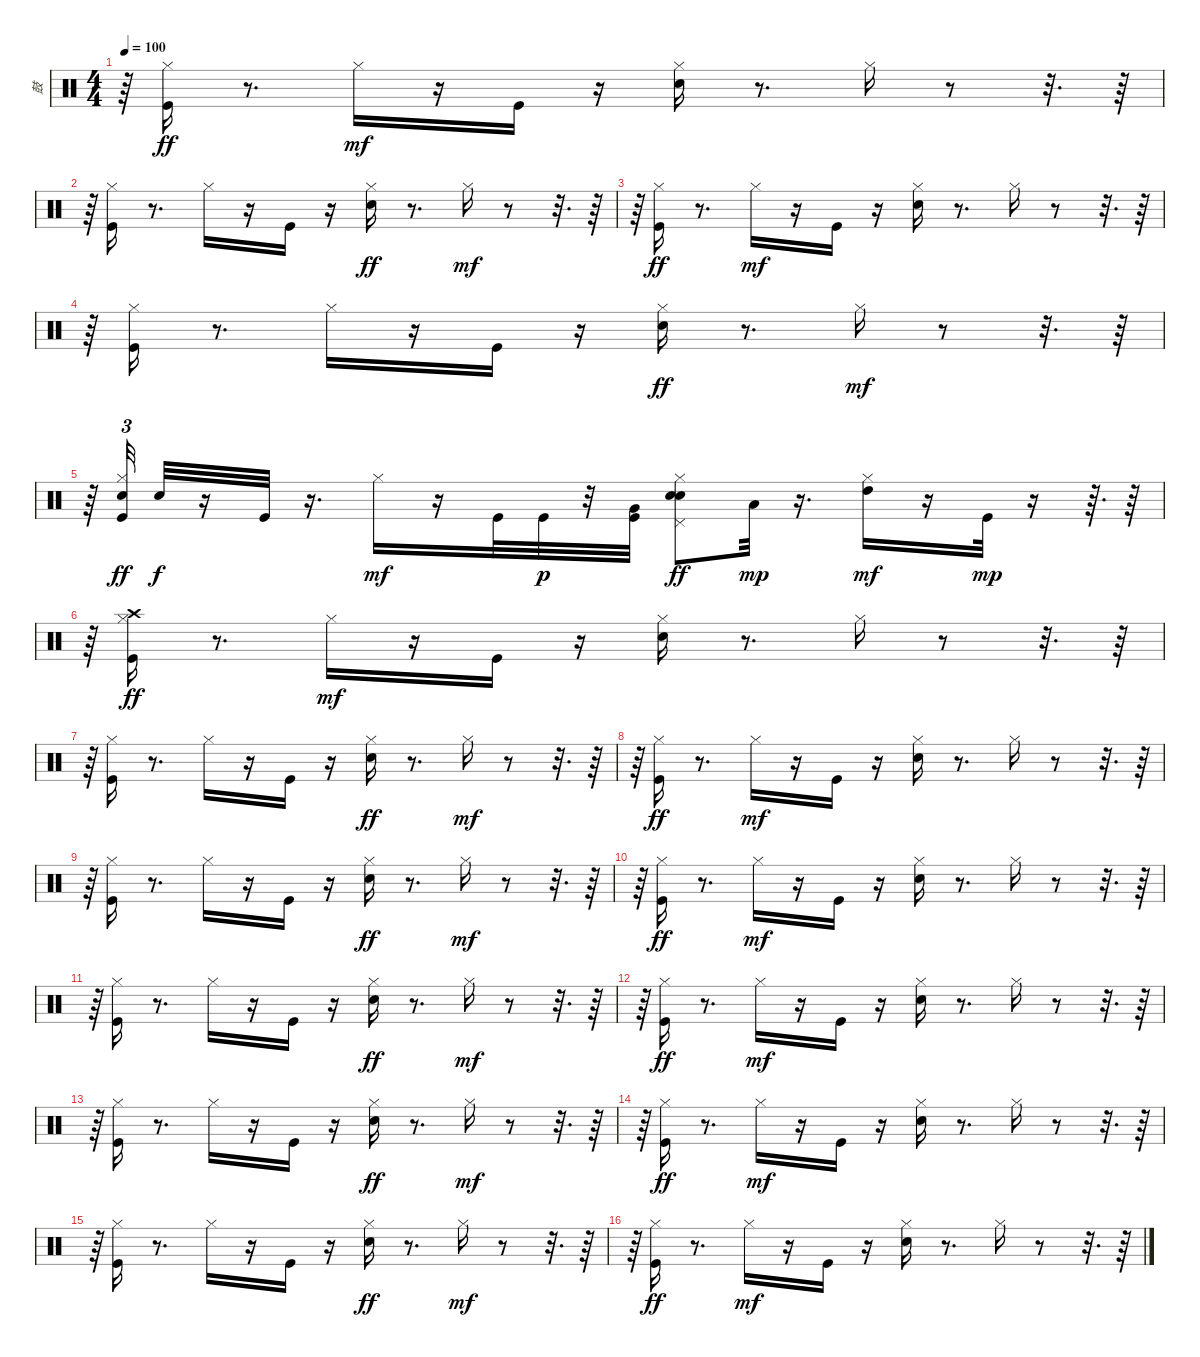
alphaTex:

\track ("鼓" "鼓") {instrument percussion}
\staff {score}
\articulation defaults
\ts (4 4)
\tempo 100
\clef neutral
\ks c
r.64{dy mf} ("Kick (hit)" "Hi-Hat (closed)").16{dy ff} r.8{d} "Hi-Hat (closed)".16{dy mf} r.16 "Kick (hit)".16 r.16 ("Electric Snare (hit)" "Hi-Hat (closed)").16 r.8{d} "Hi-Hat (closed)".16 r.8 r.32{d} r.64 |
r.64 ("Kick (hit)" "Hi-Hat (closed)").16 r.8{d} "Hi-Hat (closed)".16 r.16 "Kick (hit)".16 r.16 ("Hi-Hat (closed)" "Electric Snare (hit)").16{dy ff} r.8{d} "Hi-Hat (closed)".16{dy mf} r.8 r.32{d} r.64 |
r.64 ("Kick (hit)" "Hi-Hat (closed)").16{dy ff} r.8{d} "Hi-Hat (closed)".16{dy mf} r.16 "Kick (hit)".16 r.16 ("Electric Snare (hit)" "Hi-Hat (closed)").16 r.8{d} "Hi-Hat (closed)".16 r.8 r.32{d} r.64 |
r.64 ("Kick (hit)" "Hi-Hat (closed)").16 r.8{d} "Hi-Hat (closed)".16 r.16 "Kick (hit)".16 r.16 ("Hi-Hat (closed)" "Electric Snare (hit)").16{dy ff} r.8{d} "Hi-Hat (closed)".16{dy mf} r.8 r.32{d} r.64 |
r.64 ("Electric Snare (hit)" "Kick (hit)" "Hi-Hat (closed)").32{tu (3 2) dy ff} "Electric Snare (hit)".32{dy f} r.16 "Kick (hit)".32 r.16{d} "Hi-Hat (closed)".16{dy mf} r.16 "Kick (hit)".32 "Kick (hit)".32{dy p} r.32 ("Kick (hit)" "Very Low Tom (hit)").32 ("Pedal Hi-Hat (hit)" "Electric Snare (hit)" "Hi-Hat (closed)" "Electric Snare (hit)").8{dy ff} "Low Tom (hit)".32{dy mp} r.16{d} ("Hi-Hat (closed)" "High Tom (hit)").16{dy mf} r.16 "Kick (hit)".32{dy mp} r.16 r.64{d} r.64 |
r.64 ("Crash high (hit)" "Kick (hit)" "Hi-Hat (closed)").16{dy ff} r.8{d} "Hi-Hat (closed)".16{dy mf} r.16 "Kick (hit)".16 r.16 ("Electric Snare (hit)" "Hi-Hat (closed)").16 r.8{d} "Hi-Hat (closed)".16 r.8 r.32{d} r.64 |
r.64 ("Kick (hit)" "Hi-Hat (closed)").16 r.8{d} "Hi-Hat (closed)".16 r.16 "Kick (hit)".16 r.16 ("Hi-Hat (closed)" "Electric Snare (hit)").16{dy ff} r.8{d} "Hi-Hat (closed)".16{dy mf} r.8 r.32{d} r.64 |
r.64 ("Kick (hit)" "Hi-Hat (closed)").16{dy ff} r.8{d} "Hi-Hat (closed)".16{dy mf} r.16 "Kick (hit)".16 r.16 ("Electric Snare (hit)" "Hi-Hat (closed)").16 r.8{d} "Hi-Hat (closed)".16 r.8 r.32{d} r.64 |
r.64 ("Kick (hit)" "Hi-Hat (closed)").16 r.8{d} "Hi-Hat (closed)".16 r.16 "Kick (hit)".16 r.16 ("Hi-Hat (closed)" "Electric Snare (hit)").16{dy ff} r.8{d} "Hi-Hat (closed)".16{dy mf} r.8 r.32{d} r.64 |
r.64 ("Kick (hit)" "Hi-Hat (closed)").16{dy ff} r.8{d} "Hi-Hat (closed)".16{dy mf} r.16 "Kick (hit)".16 r.16 ("Electric Snare (hit)" "Hi-Hat (closed)").16 r.8{d} "Hi-Hat (closed)".16 r.8 r.32{d} r.64 |
r.64 ("Kick (hit)" "Hi-Hat (closed)").16 r.8{d} "Hi-Hat (closed)".16 r.16 "Kick (hit)".16 r.16 ("Hi-Hat (closed)" "Electric Snare (hit)").16{dy ff} r.8{d} "Hi-Hat (closed)".16{dy mf} r.8 r.32{d} r.64 |
r.64 ("Kick (hit)" "Hi-Hat (closed)").16{dy ff} r.8{d} "Hi-Hat (closed)".16{dy mf} r.16 "Kick (hit)".16 r.16 ("Electric Snare (hit)" "Hi-Hat (closed)").16 r.8{d} "Hi-Hat (closed)".16 r.8 r.32{d} r.64 |
r.64 ("Kick (hit)" "Hi-Hat (closed)").16 r.8{d} "Hi-Hat (closed)".16 r.16 "Kick (hit)".16 r.16 ("Hi-Hat (closed)" "Electric Snare (hit)").16{dy ff} r.8{d} "Hi-Hat (closed)".16{dy mf} r.8 r.32{d} r.64 |
r.64 ("Kick (hit)" "Hi-Hat (closed)").16{dy ff} r.8{d} "Hi-Hat (closed)".16{dy mf} r.16 "Kick (hit)".16 r.16 ("Electric Snare (hit)" "Hi-Hat (closed)").16 r.8{d} "Hi-Hat (closed)".16 r.8 r.32{d} r.64 |
r.64 ("Kick (hit)" "Hi-Hat (closed)").16 r.8{d} "Hi-Hat (closed)".16 r.16 "Kick (hit)".16 r.16 ("Hi-Hat (closed)" "Electric Snare (hit)").16{dy ff} r.8{d} "Hi-Hat (closed)".16{dy mf} r.8 r.32{d} r.64 |
r.64 ("Kick (hit)" "Hi-Hat (closed)").16{dy ff} r.8{d} "Hi-Hat (closed)".16{dy mf} r.16 "Kick (hit)".16 r.16 ("Electric Snare (hit)" "Hi-Hat (closed)").16 r.8{d} "Hi-Hat (closed)".16 r.8 r.32{d} r.64
